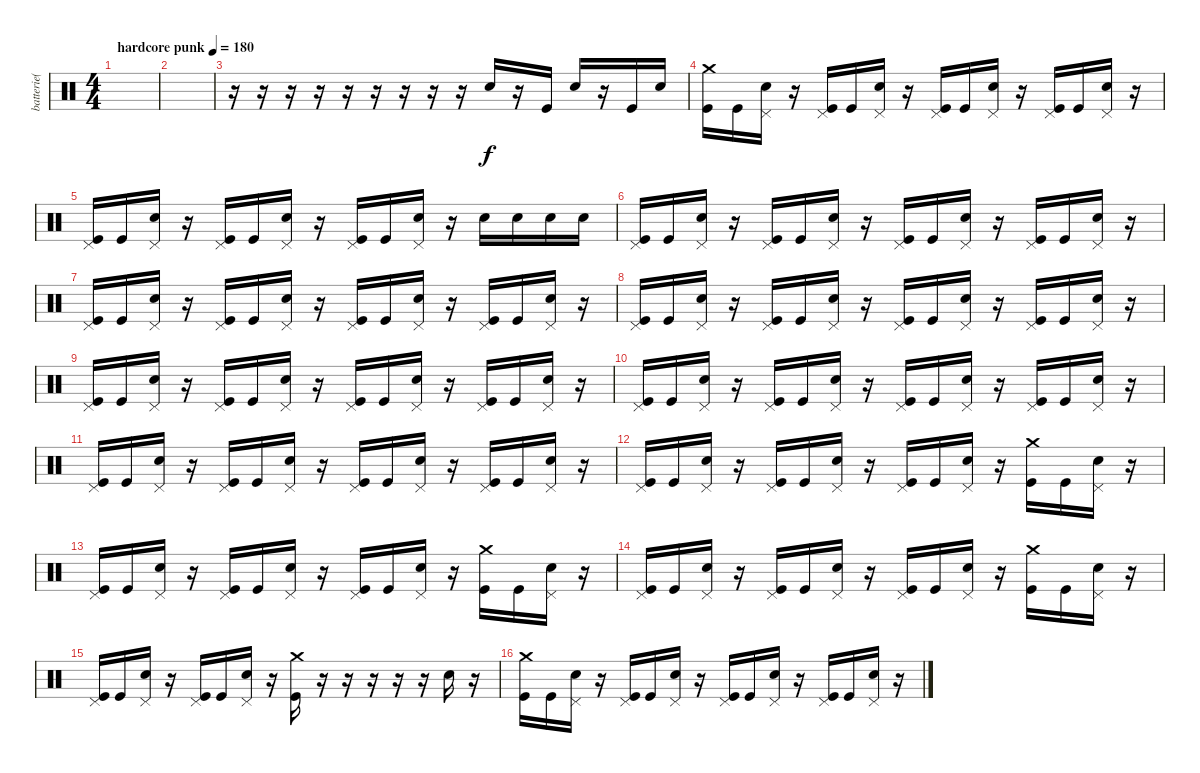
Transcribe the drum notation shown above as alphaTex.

\track ("batterie( Rob )" "batterie( ") {instrument percussion}
\staff {score}
\articulation defaults
\ts (4 4)
\tempo (180 "hardcore punk")
\clef neutral
\ks c
|
|
r.16 r.16 r.16 r.16 r.16 r.16 r.16 r.16 r.16 "Snare (hit) 2".16 r.16 "Kick (hit)".16 "Snare (hit) 2".16 r.16 "Kick (hit)".16 "Snare (hit) 2".16 |
("Crash medium (hit)" "Kick (hit)").16 "Kick (hit)".16 ("Pedal Hi-Hat (hit)" "Snare (hit) 2").16 r.16 ("Pedal Hi-Hat (hit)" "Kick (hit)").16 "Kick (hit)".16 ("Pedal Hi-Hat (hit)" "Snare (hit) 2").16 r.16 ("Pedal Hi-Hat (hit)" "Kick (hit)").16 "Kick (hit)".16 ("Pedal Hi-Hat (hit)" "Snare (hit) 2").16 r.16 ("Pedal Hi-Hat (hit)" "Kick (hit)").16 "Kick (hit)".16 ("Pedal Hi-Hat (hit)" "Snare (hit) 2").16 r.16 |
("Pedal Hi-Hat (hit)" "Kick (hit)").16 "Kick (hit)".16 ("Pedal Hi-Hat (hit)" "Snare (hit) 2").16 r.16 ("Pedal Hi-Hat (hit)" "Kick (hit)").16 "Kick (hit)".16 ("Pedal Hi-Hat (hit)" "Snare (hit) 2").16 r.16 ("Pedal Hi-Hat (hit)" "Kick (hit)").16 "Kick (hit)".16 ("Pedal Hi-Hat (hit)" "Snare (hit) 2").16 r.16 "Snare (hit) 2".16 "Snare (hit) 2".16 "Snare (hit) 2".16 "Snare (hit) 2".16 |
("Pedal Hi-Hat (hit)" "Kick (hit)").16 "Kick (hit)".16 ("Pedal Hi-Hat (hit)" "Snare (hit) 2").16 r.16 ("Pedal Hi-Hat (hit)" "Kick (hit)").16 "Kick (hit)".16 ("Pedal Hi-Hat (hit)" "Snare (hit) 2").16 r.16 ("Pedal Hi-Hat (hit)" "Kick (hit)").16 "Kick (hit)".16 ("Pedal Hi-Hat (hit)" "Snare (hit) 2").16 r.16 ("Pedal Hi-Hat (hit)" "Kick (hit)").16 "Kick (hit)".16 ("Pedal Hi-Hat (hit)" "Snare (hit) 2").16 r.16 |
("Pedal Hi-Hat (hit)" "Kick (hit)").16 "Kick (hit)".16 ("Pedal Hi-Hat (hit)" "Snare (hit) 2").16 r.16 ("Pedal Hi-Hat (hit)" "Kick (hit)").16 "Kick (hit)".16 ("Pedal Hi-Hat (hit)" "Snare (hit) 2").16 r.16 ("Pedal Hi-Hat (hit)" "Kick (hit)").16 "Kick (hit)".16 ("Pedal Hi-Hat (hit)" "Snare (hit) 2").16 r.16 ("Pedal Hi-Hat (hit)" "Kick (hit)").16 "Kick (hit)".16 ("Pedal Hi-Hat (hit)" "Snare (hit) 2").16 r.16 |
("Pedal Hi-Hat (hit)" "Kick (hit)").16 "Kick (hit)".16 ("Pedal Hi-Hat (hit)" "Snare (hit) 2").16 r.16 ("Pedal Hi-Hat (hit)" "Kick (hit)").16 "Kick (hit)".16 ("Pedal Hi-Hat (hit)" "Snare (hit) 2").16 r.16 ("Pedal Hi-Hat (hit)" "Kick (hit)").16 "Kick (hit)".16 ("Pedal Hi-Hat (hit)" "Snare (hit) 2").16 r.16 ("Pedal Hi-Hat (hit)" "Kick (hit)").16 "Kick (hit)".16 ("Pedal Hi-Hat (hit)" "Snare (hit) 2").16 r.16 |
("Pedal Hi-Hat (hit)" "Kick (hit)").16 "Kick (hit)".16 ("Pedal Hi-Hat (hit)" "Snare (hit) 2").16 r.16 ("Pedal Hi-Hat (hit)" "Kick (hit)").16 "Kick (hit)".16 ("Pedal Hi-Hat (hit)" "Snare (hit) 2").16 r.16 ("Pedal Hi-Hat (hit)" "Kick (hit)").16 "Kick (hit)".16 ("Pedal Hi-Hat (hit)" "Snare (hit) 2").16 r.16 ("Pedal Hi-Hat (hit)" "Kick (hit)").16 "Kick (hit)".16 ("Pedal Hi-Hat (hit)" "Snare (hit) 2").16 r.16 |
("Pedal Hi-Hat (hit)" "Kick (hit)").16 "Kick (hit)".16 ("Pedal Hi-Hat (hit)" "Snare (hit) 2").16 r.16 ("Pedal Hi-Hat (hit)" "Kick (hit)").16 "Kick (hit)".16 ("Pedal Hi-Hat (hit)" "Snare (hit) 2").16 r.16 ("Pedal Hi-Hat (hit)" "Kick (hit)").16 "Kick (hit)".16 ("Pedal Hi-Hat (hit)" "Snare (hit) 2").16 r.16 ("Pedal Hi-Hat (hit)" "Kick (hit)").16 "Kick (hit)".16 ("Pedal Hi-Hat (hit)" "Snare (hit) 2").16 r.16 |
("Pedal Hi-Hat (hit)" "Kick (hit)").16 "Kick (hit)".16 ("Pedal Hi-Hat (hit)" "Snare (hit) 2").16 r.16 ("Pedal Hi-Hat (hit)" "Kick (hit)").16 "Kick (hit)".16 ("Pedal Hi-Hat (hit)" "Snare (hit) 2").16 r.16 ("Pedal Hi-Hat (hit)" "Kick (hit)").16 "Kick (hit)".16 ("Pedal Hi-Hat (hit)" "Snare (hit) 2").16 r.16 ("Pedal Hi-Hat (hit)" "Kick (hit)").16 "Kick (hit)".16 ("Pedal Hi-Hat (hit)" "Snare (hit) 2").16 r.16 |
("Pedal Hi-Hat (hit)" "Kick (hit)").16 "Kick (hit)".16 ("Pedal Hi-Hat (hit)" "Snare (hit) 2").16 r.16 ("Pedal Hi-Hat (hit)" "Kick (hit)").16 "Kick (hit)".16 ("Pedal Hi-Hat (hit)" "Snare (hit) 2").16 r.16 ("Pedal Hi-Hat (hit)" "Kick (hit)").16 "Kick (hit)".16 ("Pedal Hi-Hat (hit)" "Snare (hit) 2").16 r.16 ("Crash medium (hit)" "Kick (hit)").16 "Kick (hit)".16 ("Pedal Hi-Hat (hit)" "Snare (hit) 2").16 r.16 |
("Pedal Hi-Hat (hit)" "Kick (hit)").16 "Kick (hit)".16 ("Pedal Hi-Hat (hit)" "Snare (hit) 2").16 r.16 ("Pedal Hi-Hat (hit)" "Kick (hit)").16 "Kick (hit)".16 ("Pedal Hi-Hat (hit)" "Snare (hit) 2").16 r.16 ("Pedal Hi-Hat (hit)" "Kick (hit)").16 "Kick (hit)".16 ("Pedal Hi-Hat (hit)" "Snare (hit) 2").16 r.16 ("Crash medium (hit)" "Kick (hit)").16 "Kick (hit)".16 ("Pedal Hi-Hat (hit)" "Snare (hit) 2").16 r.16 |
("Pedal Hi-Hat (hit)" "Kick (hit)").16 "Kick (hit)".16 ("Pedal Hi-Hat (hit)" "Snare (hit) 2").16 r.16 ("Pedal Hi-Hat (hit)" "Kick (hit)").16 "Kick (hit)".16 ("Pedal Hi-Hat (hit)" "Snare (hit) 2").16 r.16 ("Pedal Hi-Hat (hit)" "Kick (hit)").16 "Kick (hit)".16 ("Pedal Hi-Hat (hit)" "Snare (hit) 2").16 r.16 ("Crash medium (hit)" "Kick (hit)").16 "Kick (hit)".16 ("Pedal Hi-Hat (hit)" "Snare (hit) 2").16 r.16 |
("Pedal Hi-Hat (hit)" "Kick (hit)").16 "Kick (hit)".16 ("Pedal Hi-Hat (hit)" "Snare (hit) 2").16 r.16 ("Pedal Hi-Hat (hit)" "Kick (hit)").16 "Kick (hit)".16 ("Pedal Hi-Hat (hit)" "Snare (hit) 2").16 r.16 ("Crash medium (hit)" "Kick (hit)").16 r.16 r.16 r.16 r.16 r.16 "Snare (hit) 2".16 r.16 |
("Crash medium (hit)" "Kick (hit)").16 "Kick (hit)".16 ("Pedal Hi-Hat (hit)" "Snare (hit) 2").16 r.16 ("Pedal Hi-Hat (hit)" "Kick (hit)").16 "Kick (hit)".16 ("Pedal Hi-Hat (hit)" "Snare (hit) 2").16 r.16 ("Pedal Hi-Hat (hit)" "Kick (hit)").16 "Kick (hit)".16 ("Pedal Hi-Hat (hit)" "Snare (hit) 2").16 r.16 ("Pedal Hi-Hat (hit)" "Kick (hit)").16 "Kick (hit)".16 ("Pedal Hi-Hat (hit)" "Snare (hit) 2").16 r.16
